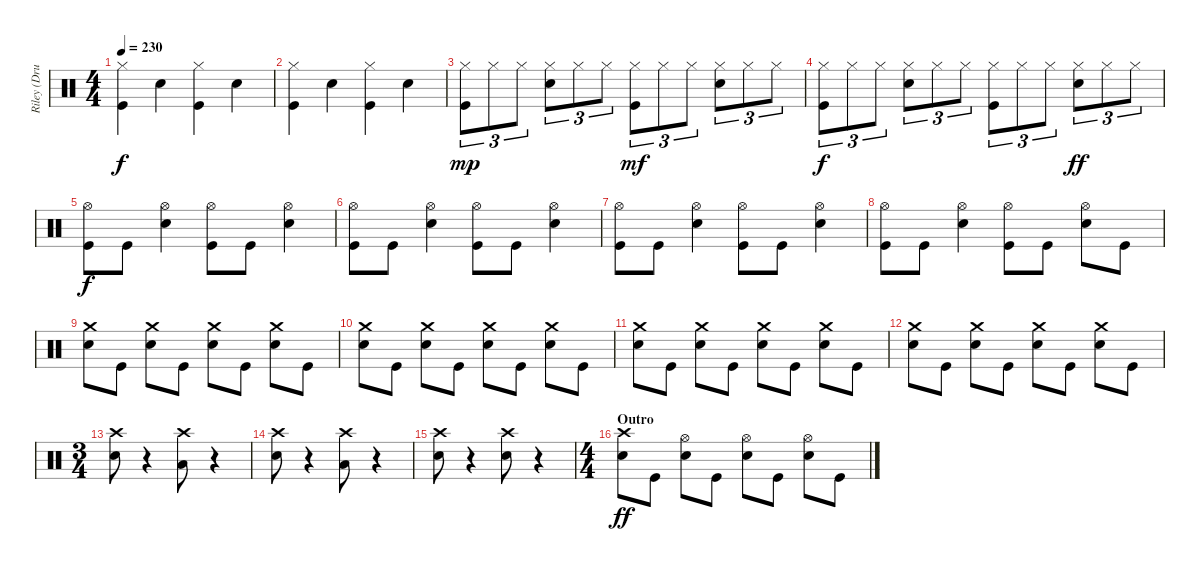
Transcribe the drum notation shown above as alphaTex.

\track ("Riley (Drums)" "Riley (Dru") {instrument percussion}
\staff {score}
\articulation defaults
\ts (4 4)
\tempo 230
\clef neutral
\ks c
("Hi-Hat (closed)" "Kick (hit)").4{dy f} "Electric Snare (hit)".4 ("Hi-Hat (closed)" "Kick (hit)").4 "Electric Snare (hit)".4 |
("Hi-Hat (closed)" "Kick (hit)").4 "Electric Snare (hit)".4 ("Hi-Hat (closed)" "Kick (hit)").4 "Electric Snare (hit)".4 |
("Hi-Hat (closed)" "Kick (hit)").8{tu (3 2) dy mp} "Hi-Hat (closed)".8{tu (3 2)} "Hi-Hat (closed)".8{tu (3 2)} ("Hi-Hat (closed)" "Electric Snare (hit)").8{tu (3 2)} "Hi-Hat (closed)".8{tu (3 2)} "Hi-Hat (closed)".8{tu (3 2)} ("Hi-Hat (closed)" "Kick (hit)").8{tu (3 2) dy mf} "Hi-Hat (closed)".8{tu (3 2)} "Hi-Hat (closed)".8{tu (3 2)} ("Hi-Hat (closed)" "Electric Snare (hit)").8{tu (3 2)} "Hi-Hat (closed)".8{tu (3 2)} "Hi-Hat (closed)".8{tu (3 2)} |
("Hi-Hat (closed)" "Kick (hit)").8{tu (3 2) dy f} "Hi-Hat (closed)".8{tu (3 2)} "Hi-Hat (closed)".8{tu (3 2)} ("Hi-Hat (closed)" "Electric Snare (hit)").8{tu (3 2)} "Hi-Hat (closed)".8{tu (3 2)} "Hi-Hat (closed)".8{tu (3 2)} ("Hi-Hat (closed)" "Kick (hit)").8{tu (3 2)} "Hi-Hat (closed)".8{tu (3 2)} "Hi-Hat (closed)".8{tu (3 2)} ("Hi-Hat (closed)" "Electric Snare (hit)").8{tu (3 2) dy ff} "Hi-Hat (closed)".8{tu (3 2)} "Hi-Hat (closed)".8{tu (3 2)} |
("Hi-Hat (open)" "Kick (hit)").8{dy f} "Kick (hit)".8 ("Hi-Hat (open)" "Electric Snare (hit)").4 ("Hi-Hat (open)" "Kick (hit)").8 "Kick (hit)".8 ("Hi-Hat (open)" "Electric Snare (hit)").4 |
("Hi-Hat (open)" "Kick (hit)").8 "Kick (hit)".8 ("Hi-Hat (open)" "Electric Snare (hit)").4 ("Hi-Hat (open)" "Kick (hit)").8 "Kick (hit)".8 ("Hi-Hat (open)" "Electric Snare (hit)").4 |
("Hi-Hat (open)" "Kick (hit)").8 "Kick (hit)".8 ("Hi-Hat (open)" "Electric Snare (hit)").4 ("Hi-Hat (open)" "Kick (hit)").8 "Kick (hit)".8 ("Hi-Hat (open)" "Electric Snare (hit)").4 |
("Hi-Hat (open)" "Kick (hit)").8 "Kick (hit)".8 ("Hi-Hat (open)" "Electric Snare (hit)").4 ("Hi-Hat (open)" "Kick (hit)").8 "Kick (hit)".8 ("Hi-Hat (open)" "Electric Snare (hit)").8 "Kick (hit)".8 |
("Crash medium (hit)" "Electric Snare (hit)").8 "Kick (hit)".8 ("Crash medium (hit)" "Electric Snare (hit)").8 "Kick (hit)".8 ("Crash medium (hit)" "Electric Snare (hit)").8 "Kick (hit)".8 ("Crash medium (hit)" "Electric Snare (hit)").8 "Kick (hit)".8 |
("Crash medium (hit)" "Electric Snare (hit)").8 "Kick (hit)".8 ("Crash medium (hit)" "Electric Snare (hit)").8 "Kick (hit)".8 ("Crash medium (hit)" "Electric Snare (hit)").8 "Kick (hit)".8 ("Crash medium (hit)" "Electric Snare (hit)").8 "Kick (hit)".8 |
("Crash medium (hit)" "Electric Snare (hit)").8 "Kick (hit)".8 ("Crash medium (hit)" "Electric Snare (hit)").8 "Kick (hit)".8 ("Crash medium (hit)" "Electric Snare (hit)").8 "Kick (hit)".8 ("Crash medium (hit)" "Electric Snare (hit)").8 "Kick (hit)".8 |
("Crash medium (hit)" "Electric Snare (hit)").8 "Kick (hit)".8 ("Crash medium (hit)" "Electric Snare (hit)").8 "Kick (hit)".8 ("Crash medium (hit)" "Electric Snare (hit)").8 "Kick (hit)".8 ("Crash medium (hit)" "Electric Snare (hit)").8 "Kick (hit)".8 |
\ts (3 4)
("Crash high (hit)" "Electric Snare (hit)").8 r.4 ("Crash high (hit)" "Low Floor Tom (hit)").8 r.4 |
("Crash high (hit)" "Electric Snare (hit)").8 r.4 ("Crash high (hit)" "Low Floor Tom (hit)").8 r.4 |
("Crash high (hit)" "Electric Snare (hit)").8 r.4 ("Crash high (hit)" "Electric Snare (hit)").8 r.4 |
\ts (4 4)
\section ("" "Outro")
("Crash high (hit)" "Electric Snare (hit)").8{dy ff} "Kick (hit)".8 ("Hi-Hat (open)" "Electric Snare (hit)").8 "Kick (hit)".8 ("Hi-Hat (open)" "Electric Snare (hit)").8 "Kick (hit)".8 ("Hi-Hat (open)" "Electric Snare (hit)").8 "Kick (hit)".8
